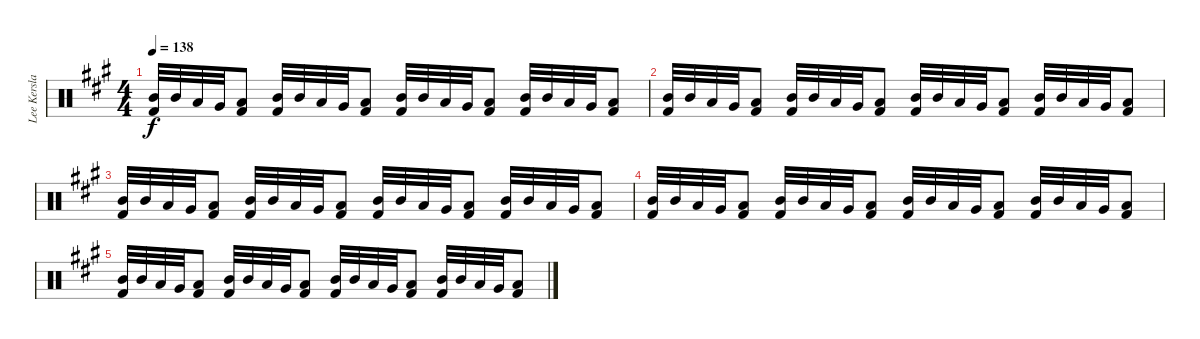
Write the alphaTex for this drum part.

\track ("Lee Kerslake" "Lee Kersla") {instrument percussion}
\staff {score}
\articulation defaults
\ts (4 4)
\tempo 138
\clef neutral
\ks a
("Mid Tom (hit)" "Kick (hit) 2").32{dy f volume 4} "Mid Tom (hit)".32 "Low Tom (hit)".32 "Very Low Tom (hit)".32 ("Low Floor Tom (hit)" "Kick (hit) 2").8 ("Mid Tom (hit)" "Kick (hit) 2").32 "Mid Tom (hit)".32 "Low Tom (hit)".32 "Very Low Tom (hit)".32 ("Low Floor Tom (hit)" "Kick (hit) 2").8 ("Mid Tom (hit)" "Kick (hit) 2").32 "Mid Tom (hit)".32 "Low Tom (hit)".32 "Very Low Tom (hit)".32 ("Low Floor Tom (hit)" "Kick (hit) 2").8 ("Mid Tom (hit)" "Kick (hit) 2").32 "Mid Tom (hit)".32 "Low Tom (hit)".32 "Very Low Tom (hit)".32 ("Low Floor Tom (hit)" "Kick (hit) 2").8 |
("Mid Tom (hit)" "Kick (hit) 2").32 "Mid Tom (hit)".32 "Low Tom (hit)".32 "Very Low Tom (hit)".32 ("Low Floor Tom (hit)" "Kick (hit) 2").8 ("Mid Tom (hit)" "Kick (hit) 2").32 "Mid Tom (hit)".32 "Low Tom (hit)".32 "Very Low Tom (hit)".32 ("Low Floor Tom (hit)" "Kick (hit) 2").8 ("Mid Tom (hit)" "Kick (hit) 2").32 "Mid Tom (hit)".32 "Low Tom (hit)".32 "Very Low Tom (hit)".32 ("Low Floor Tom (hit)" "Kick (hit) 2").8 ("Mid Tom (hit)" "Kick (hit) 2").32 "Mid Tom (hit)".32 "Low Tom (hit)".32 "Very Low Tom (hit)".32 ("Low Floor Tom (hit)" "Kick (hit) 2").8 |
("Mid Tom (hit)" "Kick (hit) 2").32 "Mid Tom (hit)".32 "Low Tom (hit)".32 "Very Low Tom (hit)".32 ("Low Floor Tom (hit)" "Kick (hit) 2").8 ("Mid Tom (hit)" "Kick (hit) 2").32 "Mid Tom (hit)".32 "Low Tom (hit)".32 "Very Low Tom (hit)".32 ("Low Floor Tom (hit)" "Kick (hit) 2").8 ("Mid Tom (hit)" "Kick (hit) 2").32 "Mid Tom (hit)".32 "Low Tom (hit)".32 "Very Low Tom (hit)".32 ("Low Floor Tom (hit)" "Kick (hit) 2").8 ("Mid Tom (hit)" "Kick (hit) 2").32 "Mid Tom (hit)".32 "Low Tom (hit)".32 "Very Low Tom (hit)".32 ("Low Floor Tom (hit)" "Kick (hit) 2").8 |
("Mid Tom (hit)" "Kick (hit) 2").32 "Mid Tom (hit)".32 "Low Tom (hit)".32 "Very Low Tom (hit)".32 ("Low Floor Tom (hit)" "Kick (hit) 2").8 ("Mid Tom (hit)" "Kick (hit) 2").32 "Mid Tom (hit)".32 "Low Tom (hit)".32 "Very Low Tom (hit)".32 ("Low Floor Tom (hit)" "Kick (hit) 2").8 ("Mid Tom (hit)" "Kick (hit) 2").32 "Mid Tom (hit)".32 "Low Tom (hit)".32 "Very Low Tom (hit)".32 ("Low Floor Tom (hit)" "Kick (hit) 2").8 ("Mid Tom (hit)" "Kick (hit) 2").32 "Mid Tom (hit)".32 "Low Tom (hit)".32 "Very Low Tom (hit)".32 ("Low Floor Tom (hit)" "Kick (hit) 2").8 |
("Mid Tom (hit)" "Kick (hit) 2").32{volume 0} "Mid Tom (hit)".32 "Low Tom (hit)".32 "Very Low Tom (hit)".32 ("Low Floor Tom (hit)" "Kick (hit) 2").8 ("Mid Tom (hit)" "Kick (hit) 2").32 "Mid Tom (hit)".32 "Low Tom (hit)".32 "Very Low Tom (hit)".32 ("Low Floor Tom (hit)" "Kick (hit) 2").8 ("Mid Tom (hit)" "Kick (hit) 2").32 "Mid Tom (hit)".32 "Low Tom (hit)".32 "Very Low Tom (hit)".32 ("Low Floor Tom (hit)" "Kick (hit) 2").8 ("Mid Tom (hit)" "Kick (hit) 2").32 "Mid Tom (hit)".32 "Low Tom (hit)".32 "Very Low Tom (hit)".32 ("Low Floor Tom (hit)" "Kick (hit) 2").8
